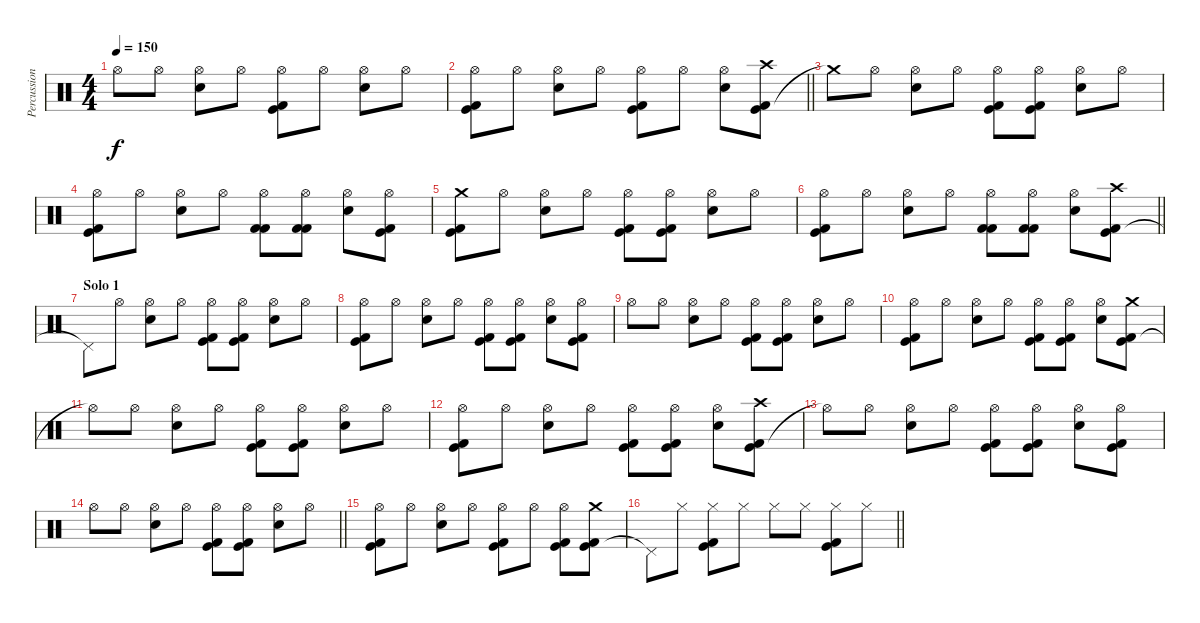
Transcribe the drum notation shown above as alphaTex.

\track ("Percussion" "Percussion") {instrument percussion}
\staff {score}
\articulation defaults
\ts (4 4)
\tempo 150
\clef neutral
\ks c "Hi-Hat (open)".8{dy f} "Hi-Hat (open)".8
("Electric Snare (hit)" "Hi-Hat (open)").8 "Hi-Hat (open)".8 ("Kick (hit)" "Kick (hit) 2" "Hi-Hat (open)").8 "Hi-Hat (open)".8 ("Electric Snare (hit)" "Hi-Hat (open)").8 "Hi-Hat (open)".8 |
\barLineRight lightlight
("Kick (hit)" "Kick (hit) 2" "Hi-Hat (open)").8 "Hi-Hat (open)".8 ("Electric Snare (hit)" "Hi-Hat (open)").8 "Hi-Hat (open)".8 ("Kick (hit)" "Kick (hit) 2" "Hi-Hat (open)").8 "Hi-Hat (open)".8 ("Electric Snare (hit)" "Hi-Hat (open)").8 ("Kick (hit)" "Kick (hit) 2" "Crash high (hit)").8 |
\section ("" "")
"Crash medium (hit)"{t}.8 "Hi-Hat (open)".8 ("Electric Snare (hit)" "Hi-Hat (open)").8 "Hi-Hat (open)".8 ("Kick (hit)" "Kick (hit) 2" "Hi-Hat (open)").8 ("Kick (hit)" "Kick (hit) 2" "Hi-Hat (open)").8 ("Electric Snare (hit)" "Hi-Hat (open)").8 "Hi-Hat (open)".8 |
("Kick (hit)" "Kick (hit) 2" "Hi-Hat (open)").8 "Hi-Hat (open)".8 ("Electric Snare (hit)" "Hi-Hat (open)").8 "Hi-Hat (open)".8 ("Kick (hit) 2" "Kick (hit) 2" "Hi-Hat (open)").8 ("Kick (hit) 2" "Kick (hit) 2" "Hi-Hat (open)").8 ("Electric Snare (hit)" "Hi-Hat (open)").8 ("Kick (hit)" "Kick (hit) 2" "Hi-Hat (open)").8 |
("Kick (hit)" "Kick (hit) 2" "Crash medium (hit)").8 "Hi-Hat (open)".8 ("Electric Snare (hit)" "Hi-Hat (open)").8 "Hi-Hat (open)".8 ("Kick (hit)" "Kick (hit) 2" "Hi-Hat (open)").8 ("Kick (hit)" "Kick (hit) 2" "Hi-Hat (open)").8 ("Electric Snare (hit)" "Hi-Hat (open)").8 "Hi-Hat (open)".8 |
\barLineRight lightlight
("Kick (hit)" "Kick (hit) 2" "Hi-Hat (open)").8 "Hi-Hat (open)".8 ("Electric Snare (hit)" "Hi-Hat (open)").8 "Hi-Hat (open)".8 ("Kick (hit) 2" "Kick (hit) 2" "Hi-Hat (open)").8 ("Kick (hit) 2" "Kick (hit) 2" "Hi-Hat (open)").8 ("Electric Snare (hit)" "Hi-Hat (open)").8 ("Kick (hit)" "Kick (hit) 2" "Crash high (hit)").8 |
\section ("" "Solo 1")
"Pedal Hi-Hat (hit)"{t}.8 "Hi-Hat (open)".8 ("Electric Snare (hit)" "Hi-Hat (open)").8 "Hi-Hat (open)".8 ("Kick (hit)" "Kick (hit) 2" "Hi-Hat (open)").8 ("Kick (hit)" "Kick (hit) 2" "Hi-Hat (open)").8 ("Electric Snare (hit)" "Hi-Hat (open)").8 "Hi-Hat (open)".8 |
("Kick (hit)" "Kick (hit) 2" "Hi-Hat (open)").8 "Hi-Hat (open)".8 ("Electric Snare (hit)" "Hi-Hat (open)").8 "Hi-Hat (open)".8 ("Kick (hit)" "Kick (hit) 2" "Hi-Hat (open)").8 ("Kick (hit)" "Kick (hit) 2" "Hi-Hat (open)").8 ("Electric Snare (hit)" "Hi-Hat (open)").8 ("Kick (hit)" "Kick (hit) 2" "Hi-Hat (open)").8 |
"Hi-Hat (open)".8 "Hi-Hat (open)".8 ("Electric Snare (hit)" "Hi-Hat (open)").8 "Hi-Hat (open)".8 ("Kick (hit)" "Kick (hit) 2" "Hi-Hat (open)").8 ("Kick (hit)" "Kick (hit) 2" "Hi-Hat (open)").8 ("Electric Snare (hit)" "Hi-Hat (open)").8 "Hi-Hat (open)".8 |
("Kick (hit)" "Kick (hit) 2" "Hi-Hat (open)").8 "Hi-Hat (open)".8 ("Electric Snare (hit)" "Hi-Hat (open)").8 "Hi-Hat (open)".8 ("Kick (hit)" "Kick (hit) 2" "Hi-Hat (open)").8 ("Kick (hit)" "Kick (hit) 2" "Hi-Hat (open)").8 ("Electric Snare (hit)" "Hi-Hat (open)").8 ("Kick (hit)" "Kick (hit) 2" "Crash medium (hit)").8 |
"Hi-Hat (open)"{t}.8 "Hi-Hat (open)".8 ("Electric Snare (hit)" "Hi-Hat (open)").8 "Hi-Hat (open)".8 ("Kick (hit)" "Kick (hit) 2" "Hi-Hat (open)").8 ("Kick (hit)" "Kick (hit) 2" "Hi-Hat (open)").8 ("Electric Snare (hit)" "Hi-Hat (open)").8 "Hi-Hat (open)".8 |
("Kick (hit)" "Kick (hit) 2" "Hi-Hat (open)").8 "Hi-Hat (open)".8 ("Electric Snare (hit)" "Hi-Hat (open)").8 "Hi-Hat (open)".8 ("Kick (hit)" "Kick (hit) 2" "Hi-Hat (open)").8 ("Kick (hit)" "Kick (hit) 2" "Hi-Hat (open)").8 ("Electric Snare (hit)" "Hi-Hat (open)").8 ("Kick (hit)" "Kick (hit) 2" "Crash high (hit)").8 |
"Hi-Hat (open)"{t}.8 "Hi-Hat (open)".8 ("Electric Snare (hit)" "Hi-Hat (open)").8 "Hi-Hat (open)".8 ("Kick (hit)" "Kick (hit) 2" "Hi-Hat (open)").8 ("Kick (hit)" "Kick (hit) 2" "Hi-Hat (open)").8 ("Electric Snare (hit)" "Hi-Hat (open)").8 ("Kick (hit)" "Kick (hit) 2" "Hi-Hat (open)").8 |
\barLineRight lightlight "Hi-Hat (open)".8 "Hi-Hat (open)".8
("Electric Snare (hit)" "Hi-Hat (open)").8 "Hi-Hat (open)".8 ("Kick (hit)" "Kick (hit) 2" "Hi-Hat (open)").8 ("Kick (hit)" "Kick (hit) 2" "Hi-Hat (open)").8 ("Electric Snare (hit)" "Hi-Hat (open)").8 "Hi-Hat (open)".8 |
\section ("" "")
("Kick (hit)" "Kick (hit) 2" "Hi-Hat (open)").8 "Hi-Hat (open)".8 ("Electric Snare (hit)" "Hi-Hat (open)").8 "Hi-Hat (open)".8 ("Kick (hit)" "Kick (hit) 2" "Hi-Hat (open)").8 "Hi-Hat (open)".8 ("Kick (hit)" "Kick (hit) 2" "Hi-Hat (open)").8 ("Kick (hit)" "Kick (hit) 2" "Crash medium (hit)").8 |
\barLineRight lightlight "Pedal Hi-Hat (hit)"{t}.8 "Hi-Hat (closed)".8
("Kick (hit)" "Kick (hit) 2" "Hi-Hat (closed)").8 "Hi-Hat (closed)".8 "Hi-Hat (closed)".8 "Hi-Hat (closed)".8 ("Kick (hit)" "Kick (hit) 2" "Hi-Hat (closed)").8 "Hi-Hat (closed)".8
